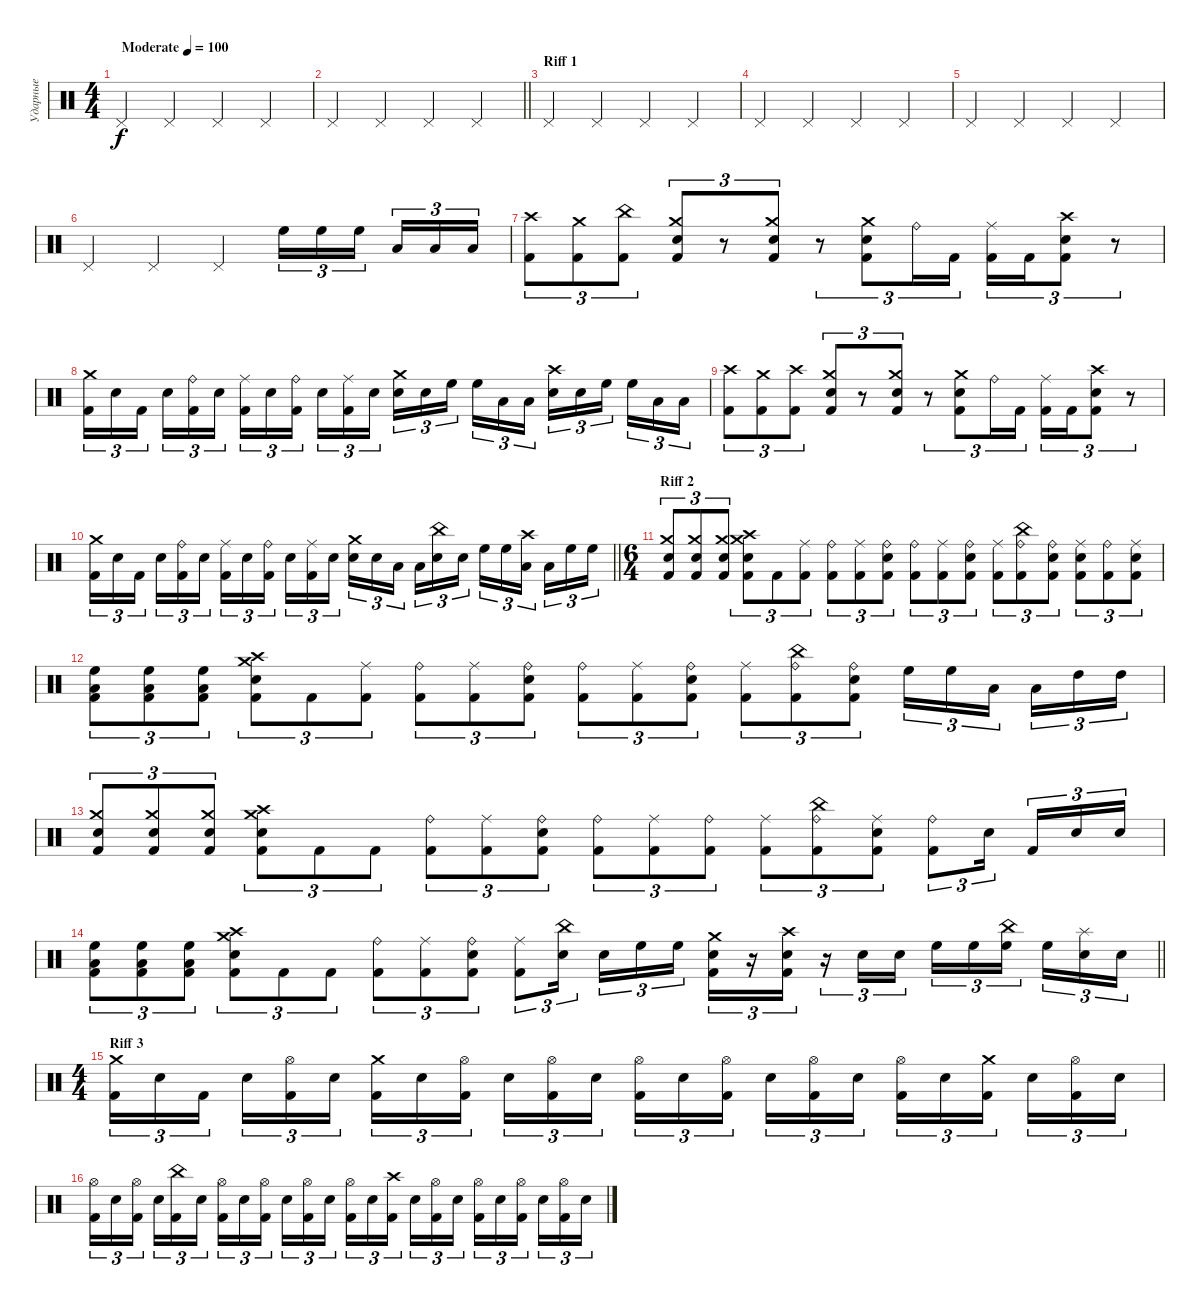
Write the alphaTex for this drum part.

\track ("Ударные" "Ударные") {instrument percussion}
\staff {score}
\articulation defaults
\ts (4 4)
\tempo (100 "Moderate")
\clef neutral
\ks c "Pedal Hi-Hat (hit)".4{dy f} "Pedal Hi-Hat (hit)".4 "Pedal Hi-Hat (hit)".4 "Pedal Hi-Hat (hit)".4
|
\barLineRight lightlight "Pedal Hi-Hat (hit)".4 "Pedal Hi-Hat (hit)".4 "Pedal Hi-Hat (hit)".4 "Pedal Hi-Hat (hit)".4
|
\section ("" "Riff 1")
"Pedal Hi-Hat (hit)".4 "Pedal Hi-Hat (hit)".4 "Pedal Hi-Hat (hit)".4 "Pedal Hi-Hat (hit)".4 |
"Pedal Hi-Hat (hit)".4 "Pedal Hi-Hat (hit)".4 "Pedal Hi-Hat (hit)".4 "Pedal Hi-Hat (hit)".4 |
"Pedal Hi-Hat (hit)".4 "Pedal Hi-Hat (hit)".4 "Pedal Hi-Hat (hit)".4 "Pedal Hi-Hat (hit)".4 |
"Pedal Hi-Hat (hit)".4 "Pedal Hi-Hat (hit)".4 "Pedal Hi-Hat (hit)".4 "High Floor Tom (hit)".16{tu (3 2)} "High Floor Tom (hit)".16{tu (3 2)} "High Floor Tom (hit)".16{tu (3 2) beam splitsecondary} "Low Tom (hit)".16{tu (3 2)} "Low Tom (hit)".16{tu (3 2)} "Low Tom (hit)".16{tu (3 2)} |
("Crash high (hit)" "Kick (hit) 2").8{tu (3 2)} ("Crash medium (hit)" "Kick (hit) 2").8{tu (3 2)} ("China (hit)" "Kick (hit) 2").8{tu (3 2)} ("Crash medium (hit)" "Electric Snare (hit)" "Kick (hit) 2").8{tu (3 2)} r.8{tu (3 2)} ("Crash medium (hit)" "Electric Snare (hit)" "Kick (hit) 2").8{tu (3 2)} r.8{tu (3 2)} ("Crash medium (hit)" "Electric Snare (hit)" "Kick (hit) 2").8{tu (3 2)} "Ride (bell)".16{tu (3 2)} "Kick (hit) 2".16{tu (3 2)} ("Ride (middle)" "Kick (hit) 2").16{tu (3 2)} "Kick (hit) 2".16{tu (3 2)} ("Crash high (hit)" "Electric Snare (hit)" "Kick (hit) 2").8{tu (3 2)} r.8{tu (3 2)} |
("Crash medium (hit)" "Kick (hit) 2").16{tu (3 2)} "Electric Snare (hit)".16{tu (3 2)} "Kick (hit) 2".16{tu (3 2) beam splitsecondary} "Electric Snare (hit)".16{tu (3 2)} ("Ride (bell)" "Kick (hit) 2").16{tu (3 2)} "Electric Snare (hit)".16{tu (3 2)} ("Ride (middle)" "Kick (hit) 2").16{tu (3 2)} "Electric Snare (hit)".16{tu (3 2)} ("Ride (bell)" "Kick (hit) 2").16{tu (3 2) beam splitsecondary} "Electric Snare (hit)".16{tu (3 2)} ("Ride (middle)" "Kick (hit) 2").16{tu (3 2)} "Electric Snare (hit)".16{tu (3 2)} ("Crash medium (hit)" "Electric Snare (hit)").16{tu (3 2)} "Electric Snare (hit)".16{tu (3 2)} "High Floor Tom (hit)".16{tu (3 2) beam splitsecondary} "High Floor Tom (hit)".16{tu (3 2)} "Low Tom (hit)".16{tu (3 2)} "Low Tom (hit)".16{tu (3 2)} ("Crash high (hit)" "Electric Snare (hit)").16{tu (3 2)} "Electric Snare (hit)".16{tu (3 2)} "High Floor Tom (hit)".16{tu (3 2) beam splitsecondary} "High Floor Tom (hit)".16{tu (3 2)} "Low Tom (hit)".16{tu (3 2)} "Low Tom (hit)".16{tu (3 2)} |
("Crash high (hit)" "Kick (hit) 2").8{tu (3 2)} ("Crash medium (hit)" "Kick (hit) 2").8{tu (3 2)} ("Crash high (hit)" "Kick (hit) 2").8{tu (3 2)} ("Crash medium (hit)" "Electric Snare (hit)" "Kick (hit) 2").8{tu (3 2)} r.8{tu (3 2)} ("Crash medium (hit)" "Electric Snare (hit)" "Kick (hit) 2").8{tu (3 2)} r.8{tu (3 2)} ("Crash medium (hit)" "Electric Snare (hit)" "Kick (hit) 2").8{tu (3 2)} "Ride (bell)".16{tu (3 2)} "Kick (hit) 2".16{tu (3 2)} ("Ride (middle)" "Kick (hit) 2").16{tu (3 2)} "Kick (hit) 2".16{tu (3 2)} ("Crash high (hit)" "Electric Snare (hit)" "Kick (hit) 2").8{tu (3 2)} r.8{tu (3 2)} |
\barLineRight lightlight
("Crash medium (hit)" "Kick (hit) 2").16{tu (3 2)} "Electric Snare (hit)".16{tu (3 2)} "Kick (hit) 2".16{tu (3 2) beam splitsecondary} "Electric Snare (hit)".16{tu (3 2)} ("Ride (bell)" "Kick (hit) 2").16{tu (3 2)} "Electric Snare (hit)".16{tu (3 2)} ("Ride (middle)" "Kick (hit) 2").16{tu (3 2)} "Electric Snare (hit)".16{tu (3 2)} ("Ride (bell)" "Kick (hit) 2").16{tu (3 2) beam splitsecondary} "Electric Snare (hit)".16{tu (3 2)} ("Ride (middle)" "Kick (hit) 2").16{tu (3 2)} "Electric Snare (hit)".16{tu (3 2)} ("Crash medium (hit)" "Electric Snare (hit)").16{tu (3 2)} "Electric Snare (hit)".16{tu (3 2)} "Low Tom (hit)".16{tu (3 2) beam splitsecondary} "Low Tom (hit)".16{tu (3 2)} ("China (hit)" "Electric Snare (hit)").16{tu (3 2)} "Electric Snare (hit)".16{tu (3 2)} "High Floor Tom (hit)".16{tu (3 2)} "High Floor Tom (hit)".16{tu (3 2)} ("Crash high (hit)" "Low Tom (hit)").16{tu (3 2) beam splitsecondary} "Low Tom (hit)".16{tu (3 2)} "High Floor Tom (hit)".16{tu (3 2)} "High Floor Tom (hit)".16{tu (3 2)} |
\ts (6 4)
\section ("" "Riff 2")
("Crash medium (hit)" "Electric Snare (hit)" "Kick (hit) 2").8{tu (3 2)} ("Crash medium (hit)" "Electric Snare (hit)" "Kick (hit) 2").8{tu (3 2)} ("Crash medium (hit)" "Electric Snare (hit)" "Kick (hit) 2").8{tu (3 2)} ("Crash high (hit)" "Crash medium (hit)" "Electric Snare (hit)" "Kick (hit) 2").8{tu (3 2)} "Kick (hit) 2".8{tu (3 2)} ("Ride (middle)" "Kick (hit) 2").8{tu (3 2)} ("Ride (bell)" "Kick (hit) 2").8{tu (3 2)} ("Ride (middle)" "Kick (hit) 2").8{tu (3 2)} ("Ride (bell)" "Electric Snare (hit)" "Kick (hit) 2").8{tu (3 2)} ("Ride (bell)" "Kick (hit) 2").8{tu (3 2)} ("Ride (middle)" "Kick (hit) 2").8{tu (3 2)} ("Ride (bell)" "Electric Snare (hit)" "Kick (hit) 2").8{tu (3 2)} ("Ride (middle)" "Kick (hit) 2").8{tu (3 2)} ("China (hit)" "Ride (bell)" "Kick (hit) 2").8{tu (3 2)} ("Ride (bell)" "Electric Snare (hit)" "Kick (hit) 2").8{tu (3 2)} ("Ride (middle)" "Electric Snare (hit)" "Kick (hit) 2").8{tu (3 2)} ("Ride (bell)" "Kick (hit) 2").8{tu (3 2)} ("Ride (middle)" "Electric Snare (hit)" "Kick (hit) 2").8{tu (3 2)} |
("Low Tom (hit)" "High Floor Tom (hit)" "Kick (hit) 2").8{tu (3 2)} ("Low Tom (hit)" "High Floor Tom (hit)" "Kick (hit) 2").8{tu (3 2)} ("Low Tom (hit)" "High Floor Tom (hit)" "Kick (hit) 2").8{tu (3 2)} ("Crash high (hit)" "Crash medium (hit)" "Electric Snare (hit)" "Kick (hit) 2").8{tu (3 2)} "Kick (hit) 2".8{tu (3 2)} ("Ride (middle)" "Kick (hit) 2").8{tu (3 2)} ("Ride (bell)" "Kick (hit) 2").8{tu (3 2)} ("Ride (middle)" "Kick (hit) 2").8{tu (3 2)} ("Ride (bell)" "Electric Snare (hit)" "Kick (hit) 2").8{tu (3 2)} ("Ride (bell)" "Kick (hit) 2").8{tu (3 2)} ("Ride (middle)" "Kick (hit) 2").8{tu (3 2)} ("Ride (bell)" "Electric Snare (hit)" "Kick (hit) 2").8{tu (3 2)} ("Ride (middle)" "Kick (hit) 2").8{tu (3 2)} ("China (hit)" "Ride (bell)" "Kick (hit) 2").8{tu (3 2)} ("Ride (bell)" "Electric Snare (hit)" "Kick (hit) 2").8{tu (3 2)} "High Floor Tom (hit)".16{tu (3 2)} "High Floor Tom (hit)".16{tu (3 2)} "Low Tom (hit)".16{tu (3 2) beam splitsecondary} "Low Tom (hit)".16{tu (3 2)} "High Tom (hit)".16{tu (3 2)} "High Tom (hit)".16{tu (3 2)} |
("Crash medium (hit)" "Electric Snare (hit)" "Kick (hit) 2").8{tu (3 2)} ("Crash medium (hit)" "Electric Snare (hit)" "Kick (hit) 2").8{tu (3 2)} ("Crash medium (hit)" "Electric Snare (hit)" "Kick (hit) 2").8{tu (3 2)} ("Crash high (hit)" "Crash medium (hit)" "Electric Snare (hit)" "Kick (hit) 2").8{tu (3 2)} "Kick (hit) 2".8{tu (3 2)} "Kick (hit) 2".8{tu (3 2)} ("Ride (bell)" "Kick (hit) 2").8{tu (3 2)} ("Ride (middle)" "Kick (hit) 2").8{tu (3 2)} ("Ride (bell)" "Electric Snare (hit)" "Kick (hit) 2").8{tu (3 2)} ("Ride (bell)" "Kick (hit) 2").8{tu (3 2)} ("Ride (middle)" "Kick (hit) 2").8{tu (3 2)} ("Ride (bell)" "Kick (hit) 2").8{tu (3 2)} ("Ride (middle)" "Kick (hit) 2").8{tu (3 2)} ("China (hit)" "Ride (bell)" "Kick (hit) 2").8{tu (3 2)} ("Ride (middle)" "Electric Snare (hit)" "Kick (hit) 2").8{tu (3 2)} ("Ride (bell)" "Kick (hit) 2").8{tu (3 2)} "Electric Snare (hit)".16{tu (3 2) beam splitsecondary} "Kick (hit) 2".16{tu (3 2)} "Electric Snare (hit)".16{tu (3 2)} "Electric Snare (hit)".16{tu (3 2)} |
\barLineRight lightlight
("Low Tom (hit)" "High Floor Tom (hit)" "Kick (hit) 2").8{tu (3 2)} ("Low Tom (hit)" "High Floor Tom (hit)" "Kick (hit) 2").8{tu (3 2)} ("Low Tom (hit)" "High Floor Tom (hit)" "Kick (hit) 2").8{tu (3 2)} ("Crash high (hit)" "Crash medium (hit)" "Electric Snare (hit)" "Kick (hit) 2").8{tu (3 2)} "Kick (hit) 2".8{tu (3 2)} "Kick (hit) 2".8{tu (3 2)} ("Ride (bell)" "Kick (hit) 2").8{tu (3 2)} ("Ride (middle)" "Kick (hit) 2").8{tu (3 2)} ("Ride (bell)" "Electric Snare (hit)" "Kick (hit) 2").8{tu (3 2)} ("Ride (middle)" "Kick (hit) 2").8{tu (3 2)} ("China (hit)" "Electric Snare (hit)").16{tu (3 2) beam splitsecondary} "Electric Snare (hit)".16{tu (3 2)} "High Floor Tom (hit)".16{tu (3 2)} "High Floor Tom (hit)".16{tu (3 2) beam splitsecondary} ("Crash medium (hit)" "Electric Snare (hit)" "Kick (hit) 2").16{tu (3 2)} r.16{tu (3 2)} ("Crash high (hit)" "Electric Snare (hit)" "Kick (hit) 2").16{tu (3 2)} r.16{tu (3 2)} "Electric Snare (hit)".16{tu (3 2)} "Electric Snare (hit)".16{tu (3 2) beam splitsecondary} "High Floor Tom (hit)".16{tu (3 2)} "High Floor Tom (hit)".16{tu (3 2)} ("China (hit)" "High Floor Tom (hit)").16{tu (3 2) beam splitsecondary} "High Floor Tom (hit)".16{tu (3 2)} ("Splash (hit)" "Electric Snare (hit)").16{tu (3 2)} "Electric Snare (hit)".16{tu (3 2)} |
\ts (4 4)
\section ("" "Riff 3")
("Crash medium (hit)" "Kick (hit) 2").16{tu (3 2)} "Electric Snare (hit)".16{tu (3 2)} "Kick (hit) 2".16{tu (3 2) beam splitsecondary} "Electric Snare (hit)".16{tu (3 2)} ("Hi-Hat (open)" "Kick (hit) 2").16{tu (3 2)} "Electric Snare (hit)".16{tu (3 2)} ("Crash medium (hit)" "Kick (hit) 2").16{tu (3 2)} "Electric Snare (hit)".16{tu (3 2)} ("Hi-Hat (open)" "Kick (hit) 2").16{tu (3 2) beam splitsecondary} "Electric Snare (hit)".16{tu (3 2)} ("Hi-Hat (open)" "Kick (hit) 2").16{tu (3 2)} "Electric Snare (hit)".16{tu (3 2)} ("Hi-Hat (open)" "Kick (hit) 2").16{tu (3 2)} "Electric Snare (hit)".16{tu (3 2)} ("Hi-Hat (open)" "Kick (hit) 2").16{tu (3 2) beam splitsecondary} "Electric Snare (hit)".16{tu (3 2)} ("Hi-Hat (open)" "Kick (hit) 2").16{tu (3 2)} "Electric Snare (hit)".16{tu (3 2)} ("Hi-Hat (open)" "Kick (hit) 2").16{tu (3 2)} "Electric Snare (hit)".16{tu (3 2)} ("Crash medium (hit)" "Kick (hit) 2").16{tu (3 2) beam splitsecondary} "Electric Snare (hit)".16{tu (3 2)} ("Hi-Hat (open)" "Kick (hit) 2").16{tu (3 2)} "Electric Snare (hit)".16{tu (3 2)} |
("Hi-Hat (open)" "Kick (hit) 2").16{tu (3 2)} "Electric Snare (hit)".16{tu (3 2)} ("Hi-Hat (open)" "Kick (hit) 2").16{tu (3 2) beam splitsecondary} "Electric Snare (hit)".16{tu (3 2)} ("China (hit)" "Kick (hit) 2").16{tu (3 2)} "Electric Snare (hit)".16{tu (3 2)} ("Hi-Hat (open)" "Kick (hit) 2").16{tu (3 2)} "Electric Snare (hit)".16{tu (3 2)} ("Hi-Hat (open)" "Kick (hit) 2").16{tu (3 2) beam splitsecondary} "Electric Snare (hit)".16{tu (3 2)} ("Hi-Hat (open)" "Kick (hit) 2").16{tu (3 2)} "Electric Snare (hit)".16{tu (3 2)} ("Hi-Hat (open)" "Kick (hit) 2").16{tu (3 2)} "Electric Snare (hit)".16{tu (3 2)} ("Crash high (hit)" "Kick (hit) 2").16{tu (3 2) beam splitsecondary} "Electric Snare (hit)".16{tu (3 2)} ("Hi-Hat (open)" "Kick (hit) 2").16{tu (3 2)} "Electric Snare (hit)".16{tu (3 2)} ("Hi-Hat (open)" "Kick (hit) 2").16{tu (3 2)} "Electric Snare (hit)".16{tu (3 2)} ("Hi-Hat (open)" "Kick (hit) 2").16{tu (3 2) beam splitsecondary} "Electric Snare (hit)".16{tu (3 2)} ("Hi-Hat (open)" "Kick (hit) 2").16{tu (3 2)} "Electric Snare (hit)".16{tu (3 2)}
